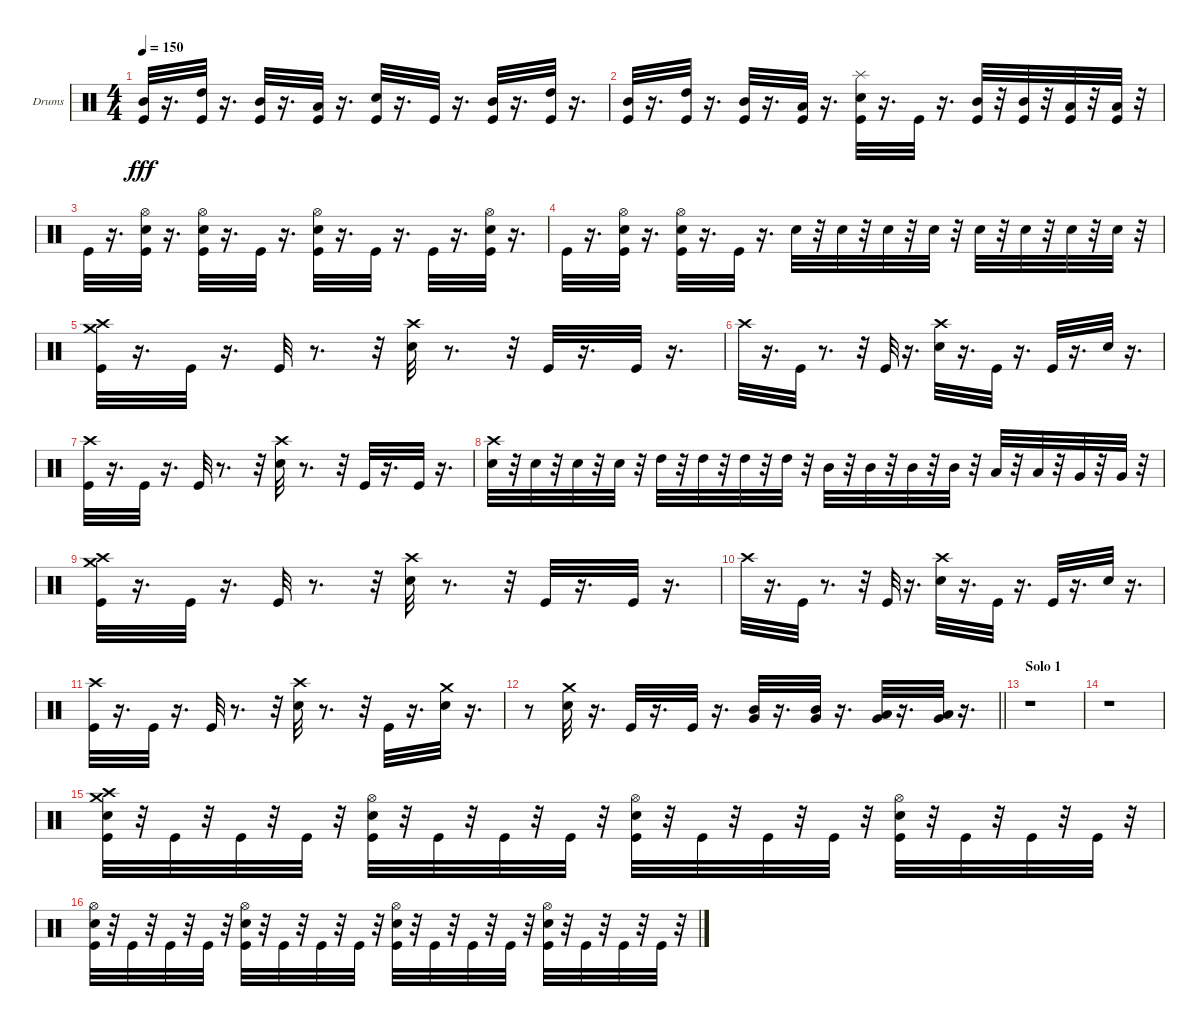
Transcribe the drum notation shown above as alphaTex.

\bracketExtendMode groupsimilarinstruments
\firstSystemTrackNameOrientation horizontal
\otherSystemsTrackNameOrientation horizontal
\track ("Dave McClain" "Drums") {mute instrument percussion}
\staff {score}
\articulation defaults
\ts (4 4)
\tempo 150
\clef neutral
\ks c
("Mid Tom (hit)" "Kick (hit)").32{dy fff} r.16{d} ("High Tom (hit)" "Kick (hit)").32 r.16{d} ("Mid Tom (hit)" "Kick (hit)").32 r.16{d} ("Low Tom (hit)" "Kick (hit)").32 r.16{d} ("Snare (hit) 2" "Kick (hit)").32 r.16{d} "Kick (hit)".32 r.16{d} ("Mid Tom (hit)" "Kick (hit)").32 r.16{d} ("High Tom (hit)" "Kick (hit)").32 r.16{d} |
("Mid Tom (hit)" "Kick (hit)").32 r.16{d} ("High Tom (hit)" "Kick (hit)").32 r.16{d} ("Mid Tom (hit)" "Kick (hit)").32 r.16{d} ("Low Tom (hit)" "Kick (hit)").32 r.16{d} ("Splash (hit)" "Snare (hit) 2" "Kick (hit)").32 r.16{d} "Kick (hit)".32 r.16{d} ("Mid Tom (hit)" "Kick (hit)").32 r.32 ("Kick (hit)" "Mid Tom (hit)").32 r.32 ("Low Tom (hit)" "Kick (hit)").32 r.32 ("Kick (hit)" "Low Tom (hit)").32 r.32 |
"Kick (hit)".32 r.16{d} ("Hi-Hat (open)" "Snare (hit) 2" "Kick (hit)").32 r.16{d} ("Hi-Hat (open)" "Kick (hit)" "Snare (hit) 2").32 r.16{d} "Kick (hit)".32 r.16{d} ("Hi-Hat (open)" "Snare (hit) 2" "Kick (hit)").32 r.16{d} "Kick (hit)".32 r.16{d} "Kick (hit)".32 r.16{d} ("Hi-Hat (open)" "Snare (hit) 2" "Kick (hit)").32 r.16{d} |
"Kick (hit)".32 r.16{d} ("Hi-Hat (open)" "Snare (hit) 2" "Kick (hit)").32 r.16{d} ("Hi-Hat (open)" "Snare (hit) 2" "Kick (hit)").32 r.16{d} "Kick (hit)".32 r.16{d} "Snare (hit) 2".32 r.32 "Snare (hit) 2".32 r.32 "Snare (hit) 2".32 r.32 "Snare (hit) 2".32 r.32 "Snare (hit) 2".32 r.32 "Snare (hit) 2".32 r.32 "Snare (hit) 2".32 r.32 "Snare (hit) 2".32 r.32 |
("Crash high (hit)" "Crash medium (hit)" "Kick (hit)").32 r.16{d} "Kick (hit)".32 r.16{d} "Kick (hit)".32 r.8{d} r.32 ("Crash high (hit)" "Snare (hit) 2").32 r.8{d} r.32 "Kick (hit)".32 r.16{d} "Kick (hit)".32 r.16{d} |
"Crash high (hit)".32 r.16{d} "Kick (hit)".32 r.8{d} r.32 "Kick (hit)".32 r.16{d} ("Crash high (hit)" "Snare (hit) 2").32 r.16{d} "Kick (hit)".32 r.16{d} "Kick (hit)".32 r.16{d} "Snare (hit) 2".32 r.16{d} |
("Kick (hit)" "Crash high (hit)").32 r.16{d} "Kick (hit)".32 r.16{d} "Kick (hit)".32 r.8{d} r.32 ("Snare (hit) 2" "Crash high (hit)").32 r.8{d} r.32 "Kick (hit)".32 r.16{d} "Kick (hit)".32 r.16{d} |
("Snare (hit) 2" "Crash high (hit)").32 r.32 "Snare (hit) 2".32 r.32 "Snare (hit) 2".32 r.32 "Snare (hit) 2".32 r.32 "High Tom (hit)".32 r.32 "High Tom (hit)".32 r.32 "High Tom (hit)".32 r.32 "High Tom (hit)".32 r.32 "Mid Tom (hit)".32 r.32 "Mid Tom (hit)".32 r.32 "Mid Tom (hit)".32 r.32 "Mid Tom (hit)".32 r.32 "Low Tom (hit)".32 r.32 "Low Tom (hit)".32 r.32 "Very Low Tom (hit)".32 r.32 "Very Low Tom (hit)".32 r.32 |
("Crash high (hit)" "Crash medium (hit)" "Kick (hit)").32 r.16{d} "Kick (hit)".32 r.16{d} "Kick (hit)".32 r.8{d} r.32 ("Crash high (hit)" "Snare (hit) 2").32 r.8{d} r.32 "Kick (hit)".32 r.16{d} "Kick (hit)".32 r.16{d} |
"Crash high (hit)".32 r.16{d} "Kick (hit)".32 r.8{d} r.32 "Kick (hit)".32 r.16{d} ("Crash high (hit)" "Snare (hit) 2").32 r.16{d} "Kick (hit)".32 r.16{d} "Kick (hit)".32 r.16{d} "Snare (hit) 2".32 r.16{d} |
("Kick (hit)" "Crash high (hit)").32 r.16{d} "Kick (hit)".32 r.16{d} "Kick (hit)".32 r.8{d} r.32 ("Snare (hit) 2" "Crash high (hit)").32 r.8{d} r.32 "Kick (hit)".32 r.16{d} ("Crash medium (hit)" "Snare (hit) 2").32 r.16{d} |
\barLineRight lightlight
r.8 ("Crash medium (hit)" "Snare (hit) 2").32 r.16{d} "Kick (hit)".32 r.16{d} "Kick (hit)".32 r.16{d} ("Mid Tom (hit)" "Very Low Tom (hit)").32 r.16{d} ("Mid Tom (hit)" "Very Low Tom (hit)").32 r.16{d} ("Low Tom (hit)" "Very Low Tom (hit)").32 r.16{d} ("Low Tom (hit)" "Very Low Tom (hit)").32 r.16{d} |
\section ("" "Solo 1")
r.1 |
r.1 |
("Crash medium (hit)" "Crash high (hit)" "Snare (hit) 2" "Kick (hit)").32 r.32 "Kick (hit)".32 r.32 "Kick (hit)".32 r.32 "Kick (hit)".32 r.32 ("Hi-Hat (open)" "Snare (hit) 2" "Kick (hit)").32 r.32 "Kick (hit)".32 r.32 "Kick (hit)".32 r.32 "Kick (hit)".32 r.32 ("Hi-Hat (open)" "Snare (hit) 2" "Kick (hit)").32 r.32 "Kick (hit)".32 r.32 "Kick (hit)".32 r.32 "Kick (hit)".32 r.32 ("Hi-Hat (open)" "Snare (hit) 2" "Kick (hit)").32 r.32 "Kick (hit)".32 r.32 "Kick (hit)".32 r.32 "Kick (hit)".32 r.32 |
("Hi-Hat (open)" "Snare (hit) 2" "Kick (hit)").32 r.32 "Kick (hit)".32 r.32 "Kick (hit)".32 r.32 "Kick (hit)".32 r.32 ("Hi-Hat (open)" "Snare (hit) 2" "Kick (hit)").32 r.32 "Kick (hit)".32 r.32 "Kick (hit)".32 r.32 "Kick (hit)".32 r.32 ("Hi-Hat (open)" "Snare (hit) 2" "Kick (hit)").32 r.32 "Kick (hit)".32 r.32 "Kick (hit)".32 r.32 "Kick (hit)".32 r.32 ("Hi-Hat (open)" "Snare (hit) 2" "Kick (hit)").32 r.32 "Kick (hit)".32 r.32 "Kick (hit)".32 r.32 "Kick (hit)".32 r.32
